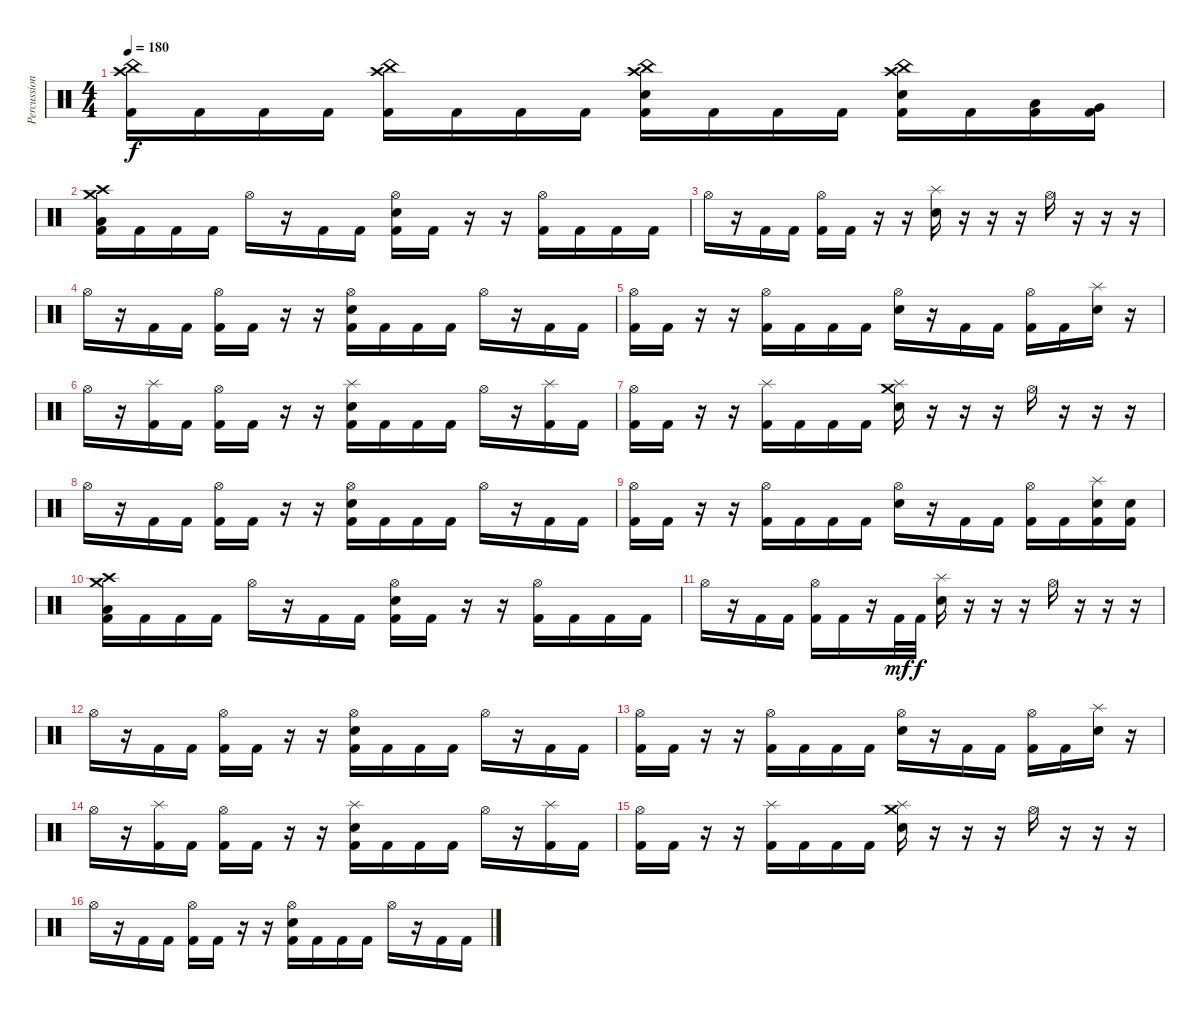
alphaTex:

\track ("Percussion" "Percussion") {instrument percussion}
\staff {score}
\articulation defaults
\ts (4 4)
\tempo 180
\clef neutral
\ks c
("China (hit)" "Crash high (hit)" "Kick (hit) 2").16{dy f} "Kick (hit) 2".16 "Kick (hit) 2".16 "Kick (hit) 2".16 ("China (hit)" "Crash high (hit)" "Kick (hit) 2").16 "Kick (hit) 2".16 "Kick (hit) 2".16 "Kick (hit) 2".16 ("China (hit)" "Crash high (hit)" "Electric Snare (hit)" "Kick (hit) 2").16 "Kick (hit) 2".16 "Kick (hit) 2".16 "Kick (hit) 2".16 ("China (hit)" "Crash high (hit)" "Electric Snare (hit)" "Kick (hit) 2").16 "Kick (hit) 2".16 ("Low Tom (hit)" "Kick (hit) 2").16 ("Very Low Tom (hit)" "Kick (hit) 2").16 |
("Crash high (hit)" "Crash medium (hit)" "Low Floor Tom (hit)" "Kick (hit) 2").16 "Kick (hit) 2".16 "Kick (hit) 2".16 "Kick (hit) 2".16 "Hi-Hat (open)".16 r.16 "Kick (hit) 2".16 "Kick (hit) 2".16 ("Hi-Hat (open)" "Electric Snare (hit)" "Kick (hit) 2").16 "Kick (hit) 2".16 r.16 r.16 ("Hi-Hat (open)" "Kick (hit) 2").16 "Kick (hit) 2".16 "Kick (hit) 2".16 "Kick (hit) 2".16 |
"Hi-Hat (open)".16 r.16 "Kick (hit) 2".16 "Kick (hit) 2".16 ("Hi-Hat (open)" "Kick (hit) 2").16 "Kick (hit) 2".16 r.16 r.16 ("Splash (hit)" "Electric Snare (hit)").16 r.16 r.16 r.16 "Hi-Hat (open)".16 r.16 r.16 r.16 |
"Hi-Hat (open)".16 r.16 "Kick (hit) 2".16 "Kick (hit) 2".16 ("Hi-Hat (open)" "Kick (hit) 2").16 "Kick (hit) 2".16 r.16 r.16 ("Hi-Hat (open)" "Electric Snare (hit)" "Kick (hit) 2").16 "Kick (hit) 2".16 "Kick (hit) 2".16 "Kick (hit) 2".16 "Hi-Hat (open)".16 r.16 "Kick (hit) 2".16 "Kick (hit) 2".16 |
("Hi-Hat (open)" "Kick (hit) 2").16 "Kick (hit) 2".16 r.16 r.16 ("Hi-Hat (open)" "Kick (hit) 2").16 "Kick (hit) 2".16 "Kick (hit) 2".16 "Kick (hit) 2".16 ("Hi-Hat (open)" "Electric Snare (hit)").16 r.16 "Kick (hit) 2".16 "Kick (hit) 2".16 ("Hi-Hat (open)" "Kick (hit) 2").16 "Kick (hit) 2".16 ("Splash (hit)" "Electric Snare (hit)").16 r.16 |
"Hi-Hat (open)".16 r.16 ("Splash (hit)" "Kick (hit) 2").16 "Kick (hit) 2".16 ("Hi-Hat (open)" "Kick (hit) 2").16 "Kick (hit) 2".16 r.16 r.16 ("Splash (hit)" "Electric Snare (hit)" "Kick (hit) 2").16 "Kick (hit) 2".16 "Kick (hit) 2".16 "Kick (hit) 2".16 "Hi-Hat (open)".16 r.16 ("Splash (hit)" "Kick (hit) 2").16 "Kick (hit) 2".16 |
("Hi-Hat (open)" "Kick (hit) 2").16 "Kick (hit) 2".16 r.16 r.16 ("Splash (hit)" "Kick (hit) 2").16 "Kick (hit) 2".16 "Kick (hit) 2".16 "Kick (hit) 2".16 ("Splash (hit)" "Crash medium (hit)" "Electric Snare (hit)").16 r.16 r.16 r.16 "Hi-Hat (open)".16 r.16 r.16 r.16 |
"Hi-Hat (open)".16 r.16 "Kick (hit) 2".16 "Kick (hit) 2".16 ("Hi-Hat (open)" "Kick (hit) 2").16 "Kick (hit) 2".16 r.16 r.16 ("Hi-Hat (open)" "Electric Snare (hit)" "Kick (hit) 2").16 "Kick (hit) 2".16 "Kick (hit) 2".16 "Kick (hit) 2".16 "Hi-Hat (open)".16 r.16 "Kick (hit) 2".16 "Kick (hit) 2".16 |
("Hi-Hat (open)" "Kick (hit) 2").16 "Kick (hit) 2".16 r.16 r.16 ("Hi-Hat (open)" "Kick (hit) 2").16 "Kick (hit) 2".16 "Kick (hit) 2".16 "Kick (hit) 2".16 ("Hi-Hat (open)" "Electric Snare (hit)").16 r.16 "Kick (hit) 2".16 "Kick (hit) 2".16 ("Hi-Hat (open)" "Kick (hit) 2").16 "Kick (hit) 2".16 ("Splash (hit)" "Electric Snare (hit)" "Kick (hit) 2").16 ("Electric Snare (hit)" "Kick (hit) 2").16 |
("Crash high (hit)" "Crash medium (hit)" "Low Floor Tom (hit)" "Kick (hit) 2").16 "Kick (hit) 2".16 "Kick (hit) 2".16 "Kick (hit) 2".16 "Hi-Hat (open)".16 r.16 "Kick (hit) 2".16 "Kick (hit) 2".16 ("Hi-Hat (open)" "Electric Snare (hit)" "Kick (hit) 2").16 "Kick (hit) 2".16 r.16 r.16 ("Hi-Hat (open)" "Kick (hit) 2").16 "Kick (hit) 2".16 "Kick (hit) 2".16 "Kick (hit) 2".16 |
"Hi-Hat (open)".16 r.16 "Kick (hit) 2".16 "Kick (hit) 2".16 ("Hi-Hat (open)" "Kick (hit) 2").16 "Kick (hit) 2".16 r.16 "Kick (hit) 2".32{dy mf} "Kick (hit) 2".32{dy f} ("Splash (hit)" "Electric Snare (hit)").16 r.16 r.16 r.16 "Hi-Hat (open)".16 r.16 r.16 r.16 |
"Hi-Hat (open)".16 r.16 "Kick (hit) 2".16 "Kick (hit) 2".16 ("Hi-Hat (open)" "Kick (hit) 2").16 "Kick (hit) 2".16 r.16 r.16 ("Hi-Hat (open)" "Electric Snare (hit)" "Kick (hit) 2").16 "Kick (hit) 2".16 "Kick (hit) 2".16 "Kick (hit) 2".16 "Hi-Hat (open)".16 r.16 "Kick (hit) 2".16 "Kick (hit) 2".16 |
("Hi-Hat (open)" "Kick (hit) 2").16 "Kick (hit) 2".16 r.16 r.16 ("Hi-Hat (open)" "Kick (hit) 2").16 "Kick (hit) 2".16 "Kick (hit) 2".16 "Kick (hit) 2".16 ("Hi-Hat (open)" "Electric Snare (hit)").16 r.16 "Kick (hit) 2".16 "Kick (hit) 2".16 ("Hi-Hat (open)" "Kick (hit) 2").16 "Kick (hit) 2".16 ("Splash (hit)" "Electric Snare (hit)").16 r.16 |
"Hi-Hat (open)".16 r.16 ("Splash (hit)" "Kick (hit) 2").16 "Kick (hit) 2".16 ("Hi-Hat (open)" "Kick (hit) 2").16 "Kick (hit) 2".16 r.16 r.16 ("Splash (hit)" "Electric Snare (hit)" "Kick (hit) 2").16 "Kick (hit) 2".16 "Kick (hit) 2".16 "Kick (hit) 2".16 "Hi-Hat (open)".16 r.16 ("Splash (hit)" "Kick (hit) 2").16 "Kick (hit) 2".16 |
("Hi-Hat (open)" "Kick (hit) 2").16 "Kick (hit) 2".16 r.16 r.16 ("Splash (hit)" "Kick (hit) 2").16 "Kick (hit) 2".16 "Kick (hit) 2".16 "Kick (hit) 2".16 ("Splash (hit)" "Crash medium (hit)" "Electric Snare (hit)").16 r.16 r.16 r.16 "Hi-Hat (open)".16 r.16 r.16 r.16 |
"Hi-Hat (open)".16 r.16 "Kick (hit) 2".16 "Kick (hit) 2".16 ("Hi-Hat (open)" "Kick (hit) 2").16 "Kick (hit) 2".16 r.16 r.16 ("Hi-Hat (open)" "Electric Snare (hit)" "Kick (hit) 2").16 "Kick (hit) 2".16 "Kick (hit) 2".16 "Kick (hit) 2".16 "Hi-Hat (open)".16 r.16 "Kick (hit) 2".16 "Kick (hit) 2".16
